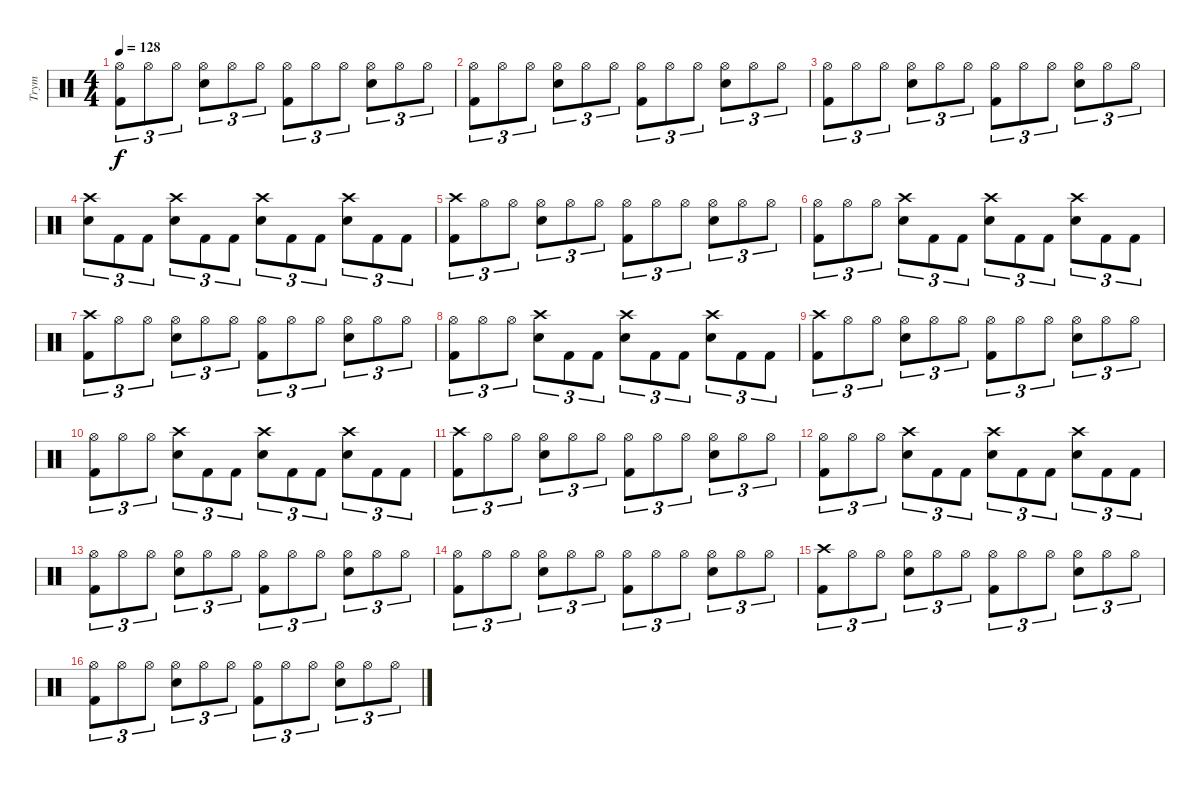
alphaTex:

\track ("Trym" "Trym") {instrument percussion}
\staff {score}
\articulation defaults
\ts (4 4)
\tempo 128
\clef neutral
\ks c
("Hi-Hat (open)" "Kick (hit) 2").8{tu (3 2) dy f} "Hi-Hat (open)".8{tu (3 2)} "Hi-Hat (open)".8{tu (3 2)} ("Hi-Hat (open)" "Electric Snare (hit)").8{tu (3 2)} "Hi-Hat (open)".8{tu (3 2)} "Hi-Hat (open)".8{tu (3 2)} ("Hi-Hat (open)" "Kick (hit) 2").8{tu (3 2)} "Hi-Hat (open)".8{tu (3 2)} "Hi-Hat (open)".8{tu (3 2)} ("Hi-Hat (open)" "Electric Snare (hit)").8{tu (3 2)} "Hi-Hat (open)".8{tu (3 2)} "Hi-Hat (open)".8{tu (3 2)} |
("Hi-Hat (open)" "Kick (hit) 2").8{tu (3 2)} "Hi-Hat (open)".8{tu (3 2)} "Hi-Hat (open)".8{tu (3 2)} ("Hi-Hat (open)" "Electric Snare (hit)").8{tu (3 2)} "Hi-Hat (open)".8{tu (3 2)} "Hi-Hat (open)".8{tu (3 2)} ("Hi-Hat (open)" "Kick (hit) 2").8{tu (3 2)} "Hi-Hat (open)".8{tu (3 2)} "Hi-Hat (open)".8{tu (3 2)} ("Hi-Hat (open)" "Electric Snare (hit)").8{tu (3 2)} "Hi-Hat (open)".8{tu (3 2)} "Hi-Hat (open)".8{tu (3 2)} |
("Hi-Hat (open)" "Kick (hit) 2").8{tu (3 2)} "Hi-Hat (open)".8{tu (3 2)} "Hi-Hat (open)".8{tu (3 2)} ("Hi-Hat (open)" "Electric Snare (hit)").8{tu (3 2)} "Hi-Hat (open)".8{tu (3 2)} "Hi-Hat (open)".8{tu (3 2)} ("Hi-Hat (open)" "Kick (hit) 2").8{tu (3 2)} "Hi-Hat (open)".8{tu (3 2)} "Hi-Hat (open)".8{tu (3 2)} ("Hi-Hat (open)" "Electric Snare (hit)").8{tu (3 2)} "Hi-Hat (open)".8{tu (3 2)} "Hi-Hat (open)".8{tu (3 2)} |
("Crash high (hit)" "Electric Snare (hit)").8{tu (3 2)} "Kick (hit) 2".8{tu (3 2)} "Kick (hit) 2".8{tu (3 2)} ("Crash high (hit)" "Electric Snare (hit)").8{tu (3 2)} "Kick (hit) 2".8{tu (3 2)} "Kick (hit) 2".8{tu (3 2)} ("Crash high (hit)" "Electric Snare (hit)").8{tu (3 2)} "Kick (hit) 2".8{tu (3 2)} "Kick (hit) 2".8{tu (3 2)} ("Crash high (hit)" "Electric Snare (hit)").8{tu (3 2)} "Kick (hit) 2".8{tu (3 2)} "Kick (hit) 2".8{tu (3 2)} |
("Crash high (hit)" "Kick (hit) 2").8{tu (3 2)} "Hi-Hat (open)".8{tu (3 2)} "Hi-Hat (open)".8{tu (3 2)} ("Hi-Hat (open)" "Electric Snare (hit)").8{tu (3 2)} "Hi-Hat (open)".8{tu (3 2)} "Hi-Hat (open)".8{tu (3 2)} ("Hi-Hat (open)" "Kick (hit) 2").8{tu (3 2)} "Hi-Hat (open)".8{tu (3 2)} "Hi-Hat (open)".8{tu (3 2)} ("Hi-Hat (open)" "Electric Snare (hit)").8{tu (3 2)} "Hi-Hat (open)".8{tu (3 2)} "Hi-Hat (open)".8{tu (3 2)} |
("Hi-Hat (open)" "Kick (hit) 2").8{tu (3 2)} "Hi-Hat (open)".8{tu (3 2)} "Hi-Hat (open)".8{tu (3 2)} ("Crash high (hit)" "Electric Snare (hit)").8{tu (3 2)} "Kick (hit) 2".8{tu (3 2)} "Kick (hit) 2".8{tu (3 2)} ("Crash high (hit)" "Electric Snare (hit)").8{tu (3 2)} "Kick (hit) 2".8{tu (3 2)} "Kick (hit) 2".8{tu (3 2)} ("Crash high (hit)" "Electric Snare (hit)").8{tu (3 2)} "Kick (hit) 2".8{tu (3 2)} "Kick (hit) 2".8{tu (3 2)} |
("Crash high (hit)" "Kick (hit) 2").8{tu (3 2)} "Hi-Hat (open)".8{tu (3 2)} "Hi-Hat (open)".8{tu (3 2)} ("Hi-Hat (open)" "Electric Snare (hit)").8{tu (3 2)} "Hi-Hat (open)".8{tu (3 2)} "Hi-Hat (open)".8{tu (3 2)} ("Hi-Hat (open)" "Kick (hit) 2").8{tu (3 2)} "Hi-Hat (open)".8{tu (3 2)} "Hi-Hat (open)".8{tu (3 2)} ("Hi-Hat (open)" "Electric Snare (hit)").8{tu (3 2)} "Hi-Hat (open)".8{tu (3 2)} "Hi-Hat (open)".8{tu (3 2)} |
("Hi-Hat (open)" "Kick (hit) 2").8{tu (3 2)} "Hi-Hat (open)".8{tu (3 2)} "Hi-Hat (open)".8{tu (3 2)} ("Crash high (hit)" "Electric Snare (hit)").8{tu (3 2)} "Kick (hit) 2".8{tu (3 2)} "Kick (hit) 2".8{tu (3 2)} ("Crash high (hit)" "Electric Snare (hit)").8{tu (3 2)} "Kick (hit) 2".8{tu (3 2)} "Kick (hit) 2".8{tu (3 2)} ("Crash high (hit)" "Electric Snare (hit)").8{tu (3 2)} "Kick (hit) 2".8{tu (3 2)} "Kick (hit) 2".8{tu (3 2)} |
("Crash high (hit)" "Kick (hit) 2").8{tu (3 2)} "Hi-Hat (open)".8{tu (3 2)} "Hi-Hat (open)".8{tu (3 2)} ("Hi-Hat (open)" "Electric Snare (hit)").8{tu (3 2)} "Hi-Hat (open)".8{tu (3 2)} "Hi-Hat (open)".8{tu (3 2)} ("Hi-Hat (open)" "Kick (hit) 2").8{tu (3 2)} "Hi-Hat (open)".8{tu (3 2)} "Hi-Hat (open)".8{tu (3 2)} ("Hi-Hat (open)" "Electric Snare (hit)").8{tu (3 2)} "Hi-Hat (open)".8{tu (3 2)} "Hi-Hat (open)".8{tu (3 2)} |
("Hi-Hat (open)" "Kick (hit) 2").8{tu (3 2)} "Hi-Hat (open)".8{tu (3 2)} "Hi-Hat (open)".8{tu (3 2)} ("Crash high (hit)" "Electric Snare (hit)").8{tu (3 2)} "Kick (hit) 2".8{tu (3 2)} "Kick (hit) 2".8{tu (3 2)} ("Crash high (hit)" "Electric Snare (hit)").8{tu (3 2)} "Kick (hit) 2".8{tu (3 2)} "Kick (hit) 2".8{tu (3 2)} ("Crash high (hit)" "Electric Snare (hit)").8{tu (3 2)} "Kick (hit) 2".8{tu (3 2)} "Kick (hit) 2".8{tu (3 2)} |
("Crash high (hit)" "Kick (hit) 2").8{tu (3 2)} "Hi-Hat (open)".8{tu (3 2)} "Hi-Hat (open)".8{tu (3 2)} ("Hi-Hat (open)" "Electric Snare (hit)").8{tu (3 2)} "Hi-Hat (open)".8{tu (3 2)} "Hi-Hat (open)".8{tu (3 2)} ("Hi-Hat (open)" "Kick (hit) 2").8{tu (3 2)} "Hi-Hat (open)".8{tu (3 2)} "Hi-Hat (open)".8{tu (3 2)} ("Hi-Hat (open)" "Electric Snare (hit)").8{tu (3 2)} "Hi-Hat (open)".8{tu (3 2)} "Hi-Hat (open)".8{tu (3 2)} |
("Hi-Hat (open)" "Kick (hit) 2").8{tu (3 2)} "Hi-Hat (open)".8{tu (3 2)} "Hi-Hat (open)".8{tu (3 2)} ("Crash high (hit)" "Electric Snare (hit)").8{tu (3 2)} "Kick (hit) 2".8{tu (3 2)} "Kick (hit) 2".8{tu (3 2)} ("Crash high (hit)" "Electric Snare (hit)").8{tu (3 2)} "Kick (hit) 2".8{tu (3 2)} "Kick (hit) 2".8{tu (3 2)} ("Crash high (hit)" "Electric Snare (hit)").8{tu (3 2)} "Kick (hit) 2".8{tu (3 2)} "Kick (hit) 2".8{tu (3 2)} |
("Hi-Hat (open)" "Kick (hit) 2").8{tu (3 2)} "Hi-Hat (open)".8{tu (3 2)} "Hi-Hat (open)".8{tu (3 2)} ("Hi-Hat (open)" "Electric Snare (hit)").8{tu (3 2)} "Hi-Hat (open)".8{tu (3 2)} "Hi-Hat (open)".8{tu (3 2)} ("Hi-Hat (open)" "Kick (hit) 2").8{tu (3 2)} "Hi-Hat (open)".8{tu (3 2)} "Hi-Hat (open)".8{tu (3 2)} ("Hi-Hat (open)" "Electric Snare (hit)").8{tu (3 2)} "Hi-Hat (open)".8{tu (3 2)} "Hi-Hat (open)".8{tu (3 2)} |
("Hi-Hat (open)" "Kick (hit) 2").8{tu (3 2)} "Hi-Hat (open)".8{tu (3 2)} "Hi-Hat (open)".8{tu (3 2)} ("Hi-Hat (open)" "Electric Snare (hit)").8{tu (3 2)} "Hi-Hat (open)".8{tu (3 2)} "Hi-Hat (open)".8{tu (3 2)} ("Hi-Hat (open)" "Kick (hit) 2").8{tu (3 2)} "Hi-Hat (open)".8{tu (3 2)} "Hi-Hat (open)".8{tu (3 2)} ("Hi-Hat (open)" "Electric Snare (hit)").8{tu (3 2)} "Hi-Hat (open)".8{tu (3 2)} "Hi-Hat (open)".8{tu (3 2)} |
("Crash high (hit)" "Kick (hit) 2").8{tu (3 2)} "Hi-Hat (open)".8{tu (3 2)} "Hi-Hat (open)".8{tu (3 2)} ("Hi-Hat (open)" "Electric Snare (hit)").8{tu (3 2)} "Hi-Hat (open)".8{tu (3 2)} "Hi-Hat (open)".8{tu (3 2)} ("Hi-Hat (open)" "Kick (hit) 2").8{tu (3 2)} "Hi-Hat (open)".8{tu (3 2)} "Hi-Hat (open)".8{tu (3 2)} ("Hi-Hat (open)" "Electric Snare (hit)").8{tu (3 2)} "Hi-Hat (open)".8{tu (3 2)} "Hi-Hat (open)".8{tu (3 2)} |
("Hi-Hat (open)" "Kick (hit) 2").8{tu (3 2)} "Hi-Hat (open)".8{tu (3 2)} "Hi-Hat (open)".8{tu (3 2)} ("Hi-Hat (open)" "Electric Snare (hit)").8{tu (3 2)} "Hi-Hat (open)".8{tu (3 2)} "Hi-Hat (open)".8{tu (3 2)} ("Hi-Hat (open)" "Kick (hit) 2").8{tu (3 2)} "Hi-Hat (open)".8{tu (3 2)} "Hi-Hat (open)".8{tu (3 2)} ("Hi-Hat (open)" "Electric Snare (hit)").8{tu (3 2)} "Hi-Hat (open)".8{tu (3 2)} "Hi-Hat (open)".8{tu (3 2)}
